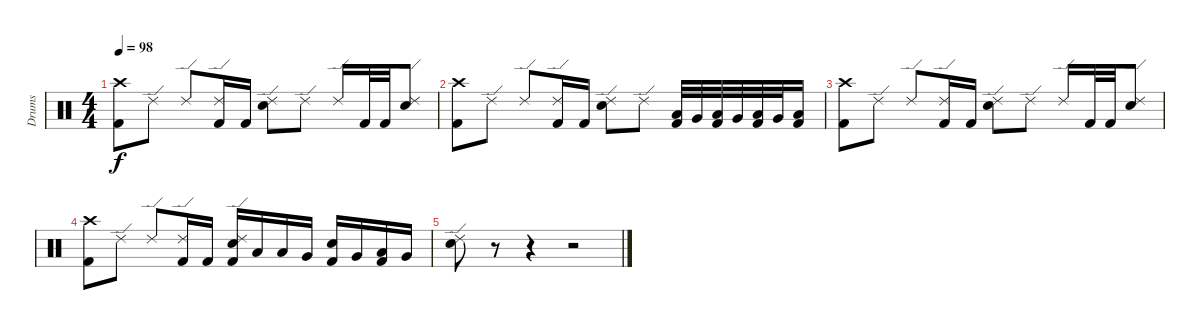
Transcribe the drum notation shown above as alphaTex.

\track ("Drums" "Drums") {instrument percussion}
\staff {score}
\articulation defaults
\ts (4 4)
\tempo 98
\clef neutral
\ks c
("Crash high (hit)" "Kick (hit) 2").8{dy f} "Ride (edge) 2".8 "Ride (edge) 2".8 ("Ride (edge) 2" "Kick (hit) 2").16 "Kick (hit) 2".16 ("Ride (edge) 2" "Snare (hit) 2").8 "Ride (edge) 2".8 "Ride (edge) 2".16 "Kick (hit) 2".32 "Kick (hit) 2".32 ("Ride (edge) 2" "Snare (hit) 2").8 |
("Crash high (hit)" "Kick (hit) 2").8 "Ride (edge) 2".8 "Ride (edge) 2".8 ("Ride (edge) 2" "Kick (hit) 2").16 "Kick (hit) 2".16 ("Ride (edge) 2" "Snare (hit) 2").8 "Ride (edge) 2".8 ("Low Tom (hit)" "Kick (hit) 2").32 "Very Low Tom (hit)".32 ("Low Tom (hit)" "Kick (hit) 2").32 "Very Low Tom (hit)".32 ("Low Tom (hit)" "Kick (hit) 2").32 "Very Low Tom (hit)".32 ("Low Tom (hit)" "Kick (hit) 2").16 |
("Crash high (hit)" "Kick (hit) 2").8 "Ride (edge) 2".8 "Ride (edge) 2".8 ("Ride (edge) 2" "Kick (hit) 2").16 "Kick (hit) 2".16 ("Ride (edge) 2" "Snare (hit) 2").8 "Ride (edge) 2".8 "Ride (edge) 2".16 "Kick (hit) 2".32 "Kick (hit) 2".32 ("Ride (edge) 2" "Snare (hit) 2").8 |
("Crash high (hit)" "Kick (hit) 2").8 "Ride (edge) 2".8 "Ride (edge) 2".8 ("Ride (edge) 2" "Kick (hit) 2").16 "Kick (hit) 2".16 ("Ride (edge) 2" "Snare (hit) 2" "Kick (hit) 2").16 "Low Tom (hit)".16 "Low Tom (hit)".16 "Very Low Tom (hit)".16 ("Snare (hit) 2" "Kick (hit) 2").16 "Very Low Tom (hit)".16 ("Low Tom (hit)" "Kick (hit) 2").16 "Very Low Tom (hit)".16 |
("Ride (edge) 2" "Snare (hit) 2").8 r.8 r.4 r.2
